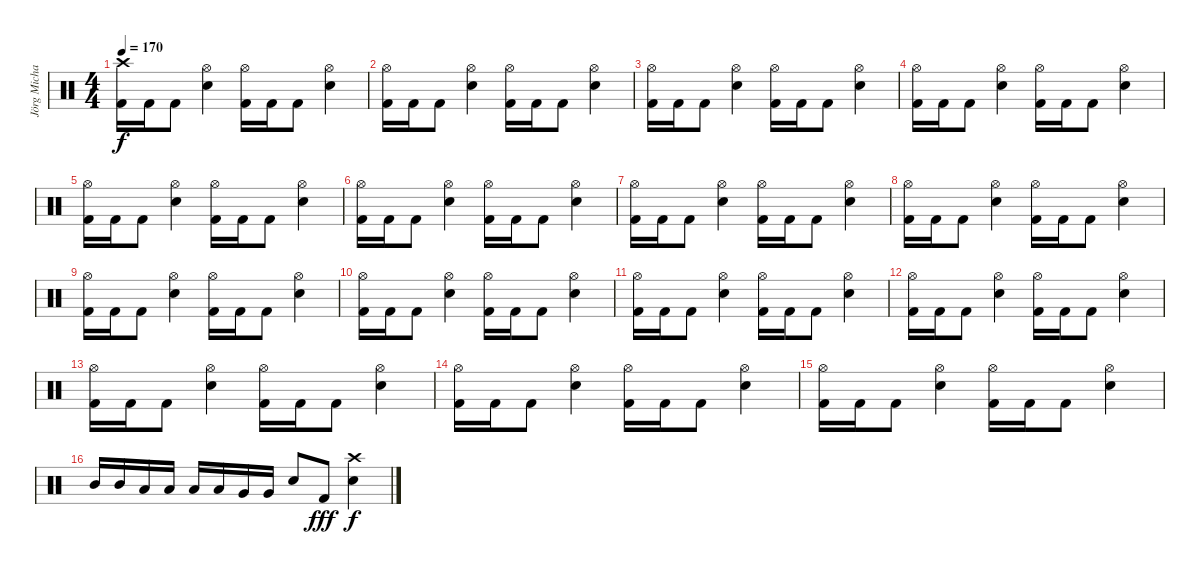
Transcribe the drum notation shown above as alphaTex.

\track ("Jörg Michael" "Jörg Micha") {instrument percussion}
\staff {score}
\articulation defaults
\ts (4 4)
\tempo 170
\clef neutral
\ks c
("Crash high (hit)" "Kick (hit) 2").16{dy f} "Kick (hit) 2".16 "Kick (hit) 2".8 ("Hi-Hat (open)" "Snare (hit) 2").4 ("Hi-Hat (open)" "Kick (hit) 2").16 "Kick (hit) 2".16 "Kick (hit) 2".8 ("Hi-Hat (open)" "Snare (hit) 2").4 |
("Hi-Hat (open)" "Kick (hit) 2").16 "Kick (hit) 2".16 "Kick (hit) 2".8 ("Hi-Hat (open)" "Snare (hit) 2").4 ("Hi-Hat (open)" "Kick (hit) 2").16 "Kick (hit) 2".16 "Kick (hit) 2".8 ("Hi-Hat (open)" "Snare (hit) 2").4 |
("Hi-Hat (open)" "Kick (hit) 2").16 "Kick (hit) 2".16 "Kick (hit) 2".8 ("Hi-Hat (open)" "Snare (hit) 2").4 ("Hi-Hat (open)" "Kick (hit) 2").16 "Kick (hit) 2".16 "Kick (hit) 2".8 ("Hi-Hat (open)" "Snare (hit) 2").4 |
("Hi-Hat (open)" "Kick (hit) 2").16 "Kick (hit) 2".16 "Kick (hit) 2".8 ("Hi-Hat (open)" "Snare (hit) 2").4 ("Hi-Hat (open)" "Kick (hit) 2").16 "Kick (hit) 2".16 "Kick (hit) 2".8 ("Hi-Hat (open)" "Snare (hit) 2").4 |
("Hi-Hat (open)" "Kick (hit) 2").16 "Kick (hit) 2".16 "Kick (hit) 2".8 ("Hi-Hat (open)" "Snare (hit) 2").4 ("Hi-Hat (open)" "Kick (hit) 2").16 "Kick (hit) 2".16 "Kick (hit) 2".8 ("Hi-Hat (open)" "Snare (hit) 2").4 |
("Hi-Hat (open)" "Kick (hit) 2").16 "Kick (hit) 2".16 "Kick (hit) 2".8 ("Hi-Hat (open)" "Snare (hit) 2").4 ("Hi-Hat (open)" "Kick (hit) 2").16 "Kick (hit) 2".16 "Kick (hit) 2".8 ("Hi-Hat (open)" "Snare (hit) 2").4 |
("Hi-Hat (open)" "Kick (hit) 2").16 "Kick (hit) 2".16 "Kick (hit) 2".8 ("Hi-Hat (open)" "Snare (hit) 2").4 ("Hi-Hat (open)" "Kick (hit) 2").16 "Kick (hit) 2".16 "Kick (hit) 2".8 ("Hi-Hat (open)" "Snare (hit) 2").4 |
("Hi-Hat (open)" "Kick (hit) 2").16 "Kick (hit) 2".16 "Kick (hit) 2".8 ("Hi-Hat (open)" "Snare (hit) 2").4 ("Hi-Hat (open)" "Kick (hit) 2").16 "Kick (hit) 2".16 "Kick (hit) 2".8 ("Hi-Hat (open)" "Snare (hit) 2").4 |
("Hi-Hat (open)" "Kick (hit) 2").16 "Kick (hit) 2".16 "Kick (hit) 2".8 ("Hi-Hat (open)" "Snare (hit) 2").4 ("Hi-Hat (open)" "Kick (hit) 2").16 "Kick (hit) 2".16 "Kick (hit) 2".8 ("Hi-Hat (open)" "Snare (hit) 2").4 |
("Hi-Hat (open)" "Kick (hit) 2").16 "Kick (hit) 2".16 "Kick (hit) 2".8 ("Hi-Hat (open)" "Snare (hit) 2").4 ("Hi-Hat (open)" "Kick (hit) 2").16 "Kick (hit) 2".16 "Kick (hit) 2".8 ("Hi-Hat (open)" "Snare (hit) 2").4 |
("Hi-Hat (open)" "Kick (hit) 2").16 "Kick (hit) 2".16 "Kick (hit) 2".8 ("Hi-Hat (open)" "Snare (hit) 2").4 ("Hi-Hat (open)" "Kick (hit) 2").16 "Kick (hit) 2".16 "Kick (hit) 2".8 ("Hi-Hat (open)" "Snare (hit) 2").4 |
("Hi-Hat (open)" "Kick (hit) 2").16 "Kick (hit) 2".16 "Kick (hit) 2".8 ("Hi-Hat (open)" "Snare (hit) 2").4 ("Hi-Hat (open)" "Kick (hit) 2").16 "Kick (hit) 2".16 "Kick (hit) 2".8 ("Hi-Hat (open)" "Snare (hit) 2").4 |
("Hi-Hat (open)" "Kick (hit) 2").16 "Kick (hit) 2".16 "Kick (hit) 2".8 ("Hi-Hat (open)" "Snare (hit) 2").4 ("Hi-Hat (open)" "Kick (hit) 2").16 "Kick (hit) 2".16 "Kick (hit) 2".8 ("Hi-Hat (open)" "Snare (hit) 2").4 |
("Hi-Hat (open)" "Kick (hit) 2").16 "Kick (hit) 2".16 "Kick (hit) 2".8 ("Hi-Hat (open)" "Snare (hit) 2").4 ("Hi-Hat (open)" "Kick (hit) 2").16 "Kick (hit) 2".16 "Kick (hit) 2".8 ("Hi-Hat (open)" "Snare (hit) 2").4 |
("Hi-Hat (open)" "Kick (hit) 2").16 "Kick (hit) 2".16 "Kick (hit) 2".8 ("Hi-Hat (open)" "Snare (hit) 2").4 ("Hi-Hat (open)" "Kick (hit) 2").16 "Kick (hit) 2".16 "Kick (hit) 2".8 ("Hi-Hat (open)" "Snare (hit) 2").4 |
"Mid Tom (hit)".16 "Mid Tom (hit)".16 "Low Tom (hit)".16 "Low Tom (hit)".16 "Low Floor Tom (hit)".16 "Low Floor Tom (hit)".16 "Very Low Tom (hit)".16 "Very Low Tom (hit)".16 "Snare (hit) 2".8 "Kick (hit) 2".8{dy fff} ("Crash high (hit)" "Snare (hit) 2").4{dy f}
